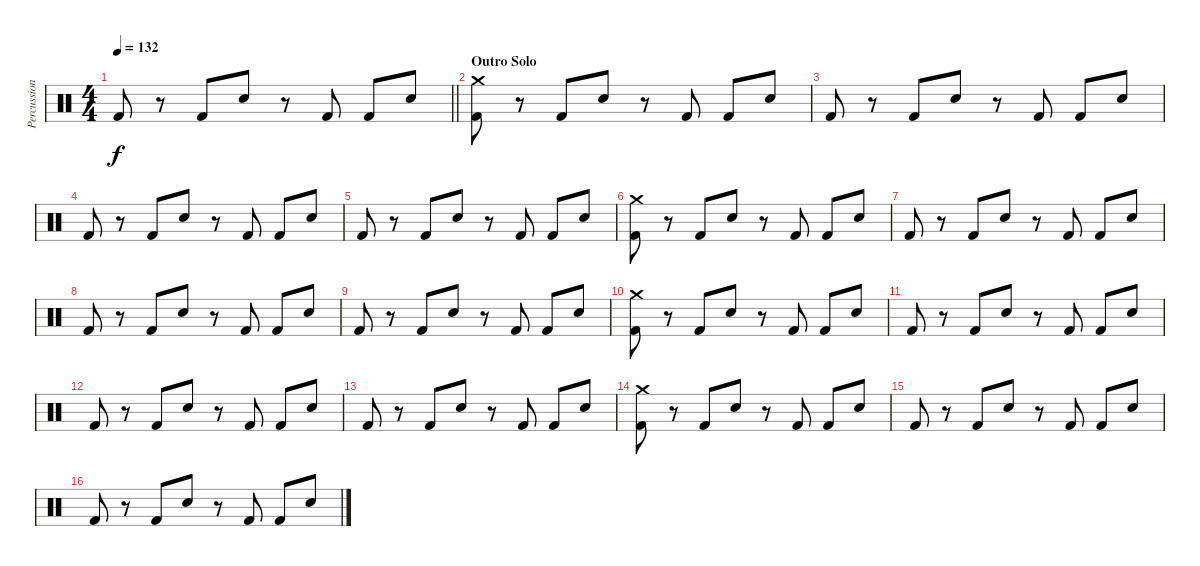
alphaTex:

\track ("Percussion" "Percussion") {instrument percussion}
\staff {score}
\articulation defaults
\ts (4 4)
\tempo 132
\clef neutral
\barLineRight lightlight
\ks c "Kick (hit) 2".8{dy f}
r.8 "Kick (hit) 2".8 "Snare (hit) 2".8 r.8 "Kick (hit) 2".8 "Kick (hit) 2".8 "Snare (hit) 2".8 |
\section ("" "Outro Solo")
("Crash medium (hit)" "Kick (hit) 2").8 r.8 "Kick (hit) 2".8 "Snare (hit) 2".8 r.8 "Kick (hit) 2".8 "Kick (hit) 2".8 "Snare (hit) 2".8 |
"Kick (hit) 2".8 r.8 "Kick (hit) 2".8 "Snare (hit) 2".8 r.8 "Kick (hit) 2".8 "Kick (hit) 2".8 "Snare (hit) 2".8 |
"Kick (hit) 2".8 r.8 "Kick (hit) 2".8 "Snare (hit) 2".8 r.8 "Kick (hit) 2".8 "Kick (hit) 2".8 "Snare (hit) 2".8 |
"Kick (hit) 2".8 r.8 "Kick (hit) 2".8 "Snare (hit) 2".8 r.8 "Kick (hit) 2".8 "Kick (hit) 2".8 "Snare (hit) 2".8 |
("Crash medium (hit)" "Kick (hit) 2").8 r.8 "Kick (hit) 2".8 "Snare (hit) 2".8 r.8 "Kick (hit) 2".8 "Kick (hit) 2".8 "Snare (hit) 2".8 |
"Kick (hit) 2".8 r.8 "Kick (hit) 2".8 "Snare (hit) 2".8 r.8 "Kick (hit) 2".8 "Kick (hit) 2".8 "Snare (hit) 2".8 |
"Kick (hit) 2".8 r.8 "Kick (hit) 2".8 "Snare (hit) 2".8 r.8 "Kick (hit) 2".8 "Kick (hit) 2".8 "Snare (hit) 2".8 |
"Kick (hit) 2".8 r.8 "Kick (hit) 2".8 "Snare (hit) 2".8 r.8 "Kick (hit) 2".8 "Kick (hit) 2".8 "Snare (hit) 2".8 |
("Crash medium (hit)" "Kick (hit) 2").8 r.8 "Kick (hit) 2".8 "Snare (hit) 2".8 r.8 "Kick (hit) 2".8 "Kick (hit) 2".8 "Snare (hit) 2".8 |
"Kick (hit) 2".8 r.8 "Kick (hit) 2".8 "Snare (hit) 2".8 r.8 "Kick (hit) 2".8 "Kick (hit) 2".8 "Snare (hit) 2".8 |
"Kick (hit) 2".8 r.8 "Kick (hit) 2".8 "Snare (hit) 2".8 r.8 "Kick (hit) 2".8 "Kick (hit) 2".8 "Snare (hit) 2".8 |
"Kick (hit) 2".8 r.8 "Kick (hit) 2".8 "Snare (hit) 2".8 r.8 "Kick (hit) 2".8 "Kick (hit) 2".8 "Snare (hit) 2".8 |
("Crash medium (hit)" "Kick (hit) 2").8 r.8 "Kick (hit) 2".8 "Snare (hit) 2".8 r.8 "Kick (hit) 2".8 "Kick (hit) 2".8 "Snare (hit) 2".8 |
"Kick (hit) 2".8 r.8 "Kick (hit) 2".8 "Snare (hit) 2".8 r.8 "Kick (hit) 2".8 "Kick (hit) 2".8 "Snare (hit) 2".8 |
"Kick (hit) 2".8 r.8 "Kick (hit) 2".8 "Snare (hit) 2".8 r.8 "Kick (hit) 2".8 "Kick (hit) 2".8 "Snare (hit) 2".8
